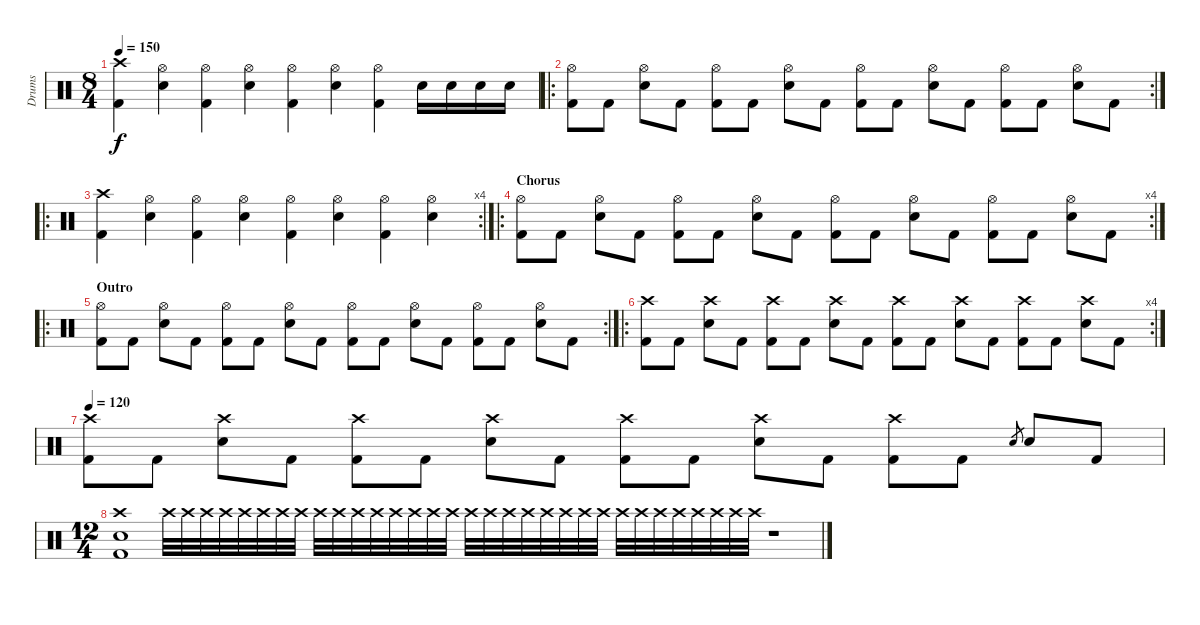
\track ("Drums" "Drums") {instrument percussion}
\staff {score}
\articulation defaults
\ts (8 4)
\tempo 150
\clef neutral
\ks c
("Crash high (hit)" "Kick (hit) 2").4{dy f} ("Hi-Hat (open)" "Electric Snare (hit)").4 ("Hi-Hat (open)" "Kick (hit) 2").4 ("Hi-Hat (open)" "Electric Snare (hit)").4 ("Hi-Hat (open)" "Kick (hit) 2").4 ("Hi-Hat (open)" "Electric Snare (hit)").4 ("Hi-Hat (open)" "Kick (hit) 2").4 "Electric Snare (hit)".16 "Electric Snare (hit)".16 "Electric Snare (hit)".16 "Electric Snare (hit)".16 |
\ro
\rc 2
("Hi-Hat (open)" "Kick (hit) 2").8 "Kick (hit) 2".8 ("Hi-Hat (open)" "Electric Snare (hit)").8 "Kick (hit) 2".8 ("Hi-Hat (open)" "Kick (hit) 2").8 "Kick (hit) 2".8 ("Hi-Hat (open)" "Electric Snare (hit)").8 "Kick (hit) 2".8 ("Hi-Hat (open)" "Kick (hit) 2").8 "Kick (hit) 2".8 ("Hi-Hat (open)" "Electric Snare (hit)").8 "Kick (hit) 2".8 ("Hi-Hat (open)" "Kick (hit) 2").8 "Kick (hit) 2".8 ("Hi-Hat (open)" "Electric Snare (hit)").8 "Kick (hit) 2".8 |
\ro
\rc 4
("Crash high (hit)" "Kick (hit) 2").4 ("Hi-Hat (open)" "Electric Snare (hit)").4 ("Hi-Hat (open)" "Kick (hit) 2").4 ("Hi-Hat (open)" "Electric Snare (hit)").4 ("Hi-Hat (open)" "Kick (hit) 2").4 ("Hi-Hat (open)" "Electric Snare (hit)").4 ("Hi-Hat (open)" "Kick (hit) 2").4 ("Hi-Hat (open)" "Electric Snare (hit)").4 |
\ro
\rc 4
\section ("" "Chorus")
("Hi-Hat (open)" "Kick (hit) 2").8 "Kick (hit) 2".8 ("Hi-Hat (open)" "Electric Snare (hit)").8 "Kick (hit) 2".8 ("Hi-Hat (open)" "Kick (hit) 2").8 "Kick (hit) 2".8 ("Hi-Hat (open)" "Electric Snare (hit)").8 "Kick (hit) 2".8 ("Hi-Hat (open)" "Kick (hit) 2").8 "Kick (hit) 2".8 ("Hi-Hat (open)" "Electric Snare (hit)").8 "Kick (hit) 2".8 ("Hi-Hat (open)" "Kick (hit) 2").8 "Kick (hit) 2".8 ("Hi-Hat (open)" "Electric Snare (hit)").8 "Kick (hit) 2".8 |
\ro
\rc 2
\section ("" "Outro")
("Hi-Hat (open)" "Kick (hit) 2").8 "Kick (hit) 2".8 ("Hi-Hat (open)" "Electric Snare (hit)").8 "Kick (hit) 2".8 ("Hi-Hat (open)" "Kick (hit) 2").8 "Kick (hit) 2".8 ("Hi-Hat (open)" "Electric Snare (hit)").8 "Kick (hit) 2".8 ("Hi-Hat (open)" "Kick (hit) 2").8 "Kick (hit) 2".8 ("Hi-Hat (open)" "Electric Snare (hit)").8 "Kick (hit) 2".8 ("Hi-Hat (open)" "Kick (hit) 2").8 "Kick (hit) 2".8 ("Hi-Hat (open)" "Electric Snare (hit)").8 "Kick (hit) 2".8 |
\ro
\rc 4
("Crash high (hit)" "Kick (hit) 2").8 "Kick (hit) 2".8 ("Crash high (hit)" "Electric Snare (hit)").8 "Kick (hit) 2".8 ("Crash high (hit)" "Kick (hit) 2").8 "Kick (hit) 2".8 ("Crash high (hit)" "Electric Snare (hit)").8 "Kick (hit) 2".8 ("Crash high (hit)" "Kick (hit) 2").8 "Kick (hit) 2".8 ("Crash high (hit)" "Electric Snare (hit)").8 "Kick (hit) 2".8 ("Crash high (hit)" "Kick (hit) 2").8 "Kick (hit) 2".8 ("Crash high (hit)" "Electric Snare (hit)").8 "Kick (hit) 2".8 |
\tempo 120
("Crash high (hit)" "Kick (hit) 2").8 "Kick (hit) 2".8 ("Crash high (hit)" "Electric Snare (hit)").8 "Kick (hit) 2".8 ("Crash high (hit)" "Kick (hit) 2").8 "Kick (hit) 2".8 ("Crash high (hit)" "Electric Snare (hit)").8 "Kick (hit) 2".8 ("Crash high (hit)" "Kick (hit) 2").8 "Kick (hit) 2".8 ("Crash high (hit)" "Electric Snare (hit)").8 "Kick (hit) 2".8 ("Crash high (hit)" "Kick (hit) 2").8 "Kick (hit) 2".8 "Electric Snare (hit)".8{gr} "Electric Snare (hit)".8 "Kick (hit) 2".8 |
\ts (12 4)
("Crash high (hit)" "Kick (hit) 2" "Electric Snare (hit)").1 "Crash high (hit)".32 "Crash high (hit)".32 "Crash high (hit)".32 "Crash high (hit)".32 "Crash high (hit)".32 "Crash high (hit)".32 "Crash high (hit)".32 "Crash high (hit)".32 "Crash high (hit)".32 "Crash high (hit)".32 "Crash high (hit)".32 "Crash high (hit)".32 "Crash high (hit)".32 "Crash high (hit)".32 "Crash high (hit)".32 "Crash high (hit)".32 "Crash high (hit)".32 "Crash high (hit)".32 "Crash high (hit)".32 "Crash high (hit)".32 "Crash high (hit)".32 "Crash high (hit)".32 "Crash high (hit)".32 "Crash high (hit)".32 "Crash high (hit)".32 "Crash high (hit)".32 "Crash high (hit)".32 "Crash high (hit)".32 "Crash high (hit)".32 "Crash high (hit)".32 "Crash high (hit)".32 "Crash high (hit)".32 r.1
